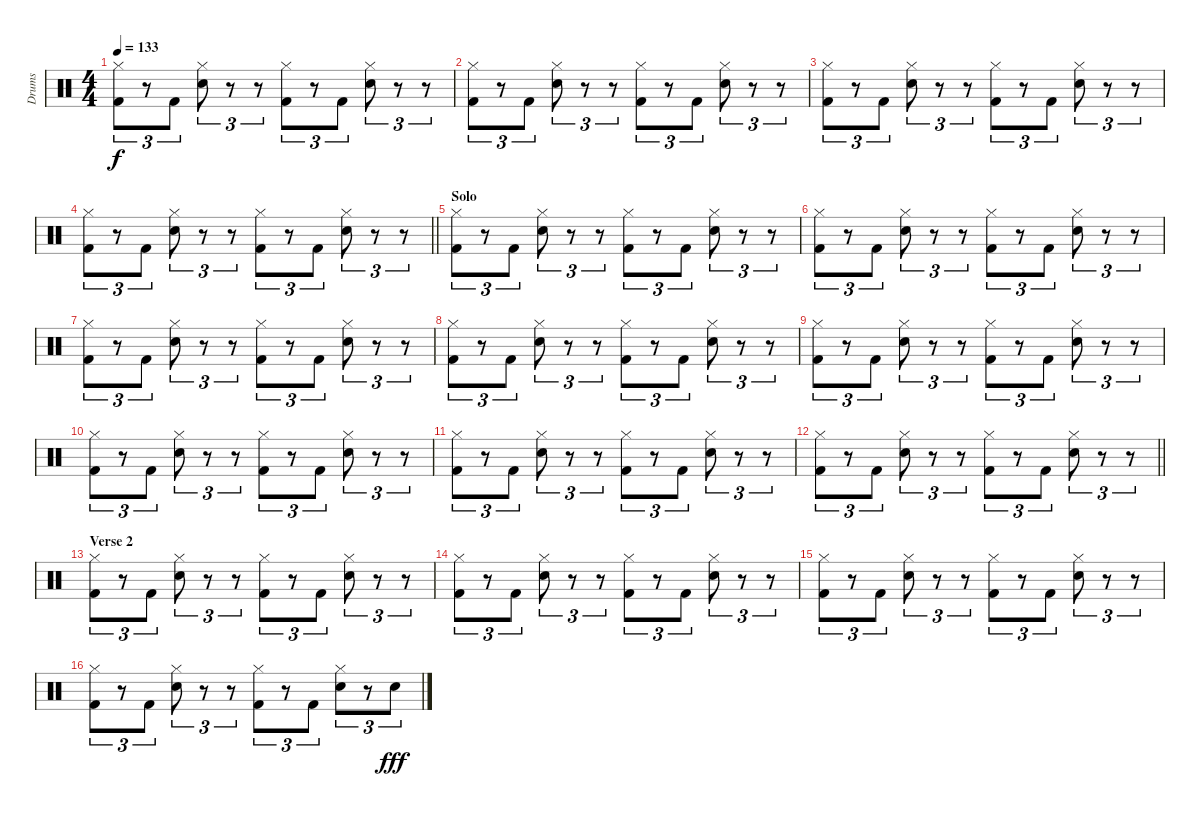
\track ("Drums" "Drums") {instrument percussion}
\staff {score}
\articulation defaults
\ts (4 4)
\tempo 133
\clef neutral
\ks c
("Hi-Hat (closed)" "Kick (hit) 2").8{tu (3 2) dy f} r.8{tu (3 2)} "Kick (hit) 2".8{tu (3 2)} ("Hi-Hat (closed)" "Snare (hit) 2").8{tu (3 2)} r.8{tu (3 2)} r.8{tu (3 2)} ("Hi-Hat (closed)" "Kick (hit) 2").8{tu (3 2)} r.8{tu (3 2)} "Kick (hit) 2".8{tu (3 2)} ("Hi-Hat (closed)" "Snare (hit) 2").8{tu (3 2)} r.8{tu (3 2)} r.8{tu (3 2)} |
("Hi-Hat (closed)" "Kick (hit) 2").8{tu (3 2)} r.8{tu (3 2)} "Kick (hit) 2".8{tu (3 2)} ("Hi-Hat (closed)" "Snare (hit) 2").8{tu (3 2)} r.8{tu (3 2)} r.8{tu (3 2)} ("Hi-Hat (closed)" "Kick (hit) 2").8{tu (3 2)} r.8{tu (3 2)} "Kick (hit) 2".8{tu (3 2)} ("Hi-Hat (closed)" "Snare (hit) 2").8{tu (3 2)} r.8{tu (3 2)} r.8{tu (3 2)} |
("Hi-Hat (closed)" "Kick (hit) 2").8{tu (3 2)} r.8{tu (3 2)} "Kick (hit) 2".8{tu (3 2)} ("Hi-Hat (closed)" "Snare (hit) 2").8{tu (3 2)} r.8{tu (3 2)} r.8{tu (3 2)} ("Hi-Hat (closed)" "Kick (hit) 2").8{tu (3 2)} r.8{tu (3 2)} "Kick (hit) 2".8{tu (3 2)} ("Hi-Hat (closed)" "Snare (hit) 2").8{tu (3 2)} r.8{tu (3 2)} r.8{tu (3 2)} |
\barLineRight lightlight
("Hi-Hat (closed)" "Kick (hit) 2").8{tu (3 2)} r.8{tu (3 2)} "Kick (hit) 2".8{tu (3 2)} ("Hi-Hat (closed)" "Snare (hit) 2").8{tu (3 2)} r.8{tu (3 2)} r.8{tu (3 2)} ("Hi-Hat (closed)" "Kick (hit) 2").8{tu (3 2)} r.8{tu (3 2)} "Kick (hit) 2".8{tu (3 2)} ("Hi-Hat (closed)" "Snare (hit) 2").8{tu (3 2)} r.8{tu (3 2)} r.8{tu (3 2)} |
\section ("" "Solo")
("Hi-Hat (closed)" "Kick (hit) 2").8{tu (3 2)} r.8{tu (3 2)} "Kick (hit) 2".8{tu (3 2)} ("Hi-Hat (closed)" "Snare (hit) 2").8{tu (3 2)} r.8{tu (3 2)} r.8{tu (3 2)} ("Hi-Hat (closed)" "Kick (hit) 2").8{tu (3 2)} r.8{tu (3 2)} "Kick (hit) 2".8{tu (3 2)} ("Hi-Hat (closed)" "Snare (hit) 2").8{tu (3 2)} r.8{tu (3 2)} r.8{tu (3 2)} |
("Hi-Hat (closed)" "Kick (hit) 2").8{tu (3 2)} r.8{tu (3 2)} "Kick (hit) 2".8{tu (3 2)} ("Hi-Hat (closed)" "Snare (hit) 2").8{tu (3 2)} r.8{tu (3 2)} r.8{tu (3 2)} ("Hi-Hat (closed)" "Kick (hit) 2").8{tu (3 2)} r.8{tu (3 2)} "Kick (hit) 2".8{tu (3 2)} ("Hi-Hat (closed)" "Snare (hit) 2").8{tu (3 2)} r.8{tu (3 2)} r.8{tu (3 2)} |
("Hi-Hat (closed)" "Kick (hit) 2").8{tu (3 2)} r.8{tu (3 2)} "Kick (hit) 2".8{tu (3 2)} ("Hi-Hat (closed)" "Snare (hit) 2").8{tu (3 2)} r.8{tu (3 2)} r.8{tu (3 2)} ("Hi-Hat (closed)" "Kick (hit) 2").8{tu (3 2)} r.8{tu (3 2)} "Kick (hit) 2".8{tu (3 2)} ("Hi-Hat (closed)" "Snare (hit) 2").8{tu (3 2)} r.8{tu (3 2)} r.8{tu (3 2)} |
("Hi-Hat (closed)" "Kick (hit) 2").8{tu (3 2)} r.8{tu (3 2)} "Kick (hit) 2".8{tu (3 2)} ("Hi-Hat (closed)" "Snare (hit) 2").8{tu (3 2)} r.8{tu (3 2)} r.8{tu (3 2)} ("Hi-Hat (closed)" "Kick (hit) 2").8{tu (3 2)} r.8{tu (3 2)} "Kick (hit) 2".8{tu (3 2)} ("Hi-Hat (closed)" "Snare (hit) 2").8{tu (3 2)} r.8{tu (3 2)} r.8{tu (3 2)} |
("Hi-Hat (closed)" "Kick (hit) 2").8{tu (3 2)} r.8{tu (3 2)} "Kick (hit) 2".8{tu (3 2)} ("Hi-Hat (closed)" "Snare (hit) 2").8{tu (3 2)} r.8{tu (3 2)} r.8{tu (3 2)} ("Hi-Hat (closed)" "Kick (hit) 2").8{tu (3 2)} r.8{tu (3 2)} "Kick (hit) 2".8{tu (3 2)} ("Hi-Hat (closed)" "Snare (hit) 2").8{tu (3 2)} r.8{tu (3 2)} r.8{tu (3 2)} |
("Hi-Hat (closed)" "Kick (hit) 2").8{tu (3 2)} r.8{tu (3 2)} "Kick (hit) 2".8{tu (3 2)} ("Hi-Hat (closed)" "Snare (hit) 2").8{tu (3 2)} r.8{tu (3 2)} r.8{tu (3 2)} ("Hi-Hat (closed)" "Kick (hit) 2").8{tu (3 2)} r.8{tu (3 2)} "Kick (hit) 2".8{tu (3 2)} ("Hi-Hat (closed)" "Snare (hit) 2").8{tu (3 2)} r.8{tu (3 2)} r.8{tu (3 2)} |
("Hi-Hat (closed)" "Kick (hit) 2").8{tu (3 2)} r.8{tu (3 2)} "Kick (hit) 2".8{tu (3 2)} ("Hi-Hat (closed)" "Snare (hit) 2").8{tu (3 2)} r.8{tu (3 2)} r.8{tu (3 2)} ("Hi-Hat (closed)" "Kick (hit) 2").8{tu (3 2)} r.8{tu (3 2)} "Kick (hit) 2".8{tu (3 2)} ("Hi-Hat (closed)" "Snare (hit) 2").8{tu (3 2)} r.8{tu (3 2)} r.8{tu (3 2)} |
\barLineRight lightlight
("Hi-Hat (closed)" "Kick (hit) 2").8{tu (3 2)} r.8{tu (3 2)} "Kick (hit) 2".8{tu (3 2)} ("Hi-Hat (closed)" "Snare (hit) 2").8{tu (3 2)} r.8{tu (3 2)} r.8{tu (3 2)} ("Hi-Hat (closed)" "Kick (hit) 2").8{tu (3 2)} r.8{tu (3 2)} "Kick (hit) 2".8{tu (3 2)} ("Hi-Hat (closed)" "Snare (hit) 2").8{tu (3 2)} r.8{tu (3 2)} r.8{tu (3 2)} |
\section ("" "Verse 2")
("Hi-Hat (closed)" "Kick (hit) 2").8{tu (3 2)} r.8{tu (3 2)} "Kick (hit) 2".8{tu (3 2)} ("Hi-Hat (closed)" "Snare (hit) 2").8{tu (3 2)} r.8{tu (3 2)} r.8{tu (3 2)} ("Hi-Hat (closed)" "Kick (hit) 2").8{tu (3 2)} r.8{tu (3 2)} "Kick (hit) 2".8{tu (3 2)} ("Hi-Hat (closed)" "Snare (hit) 2").8{tu (3 2)} r.8{tu (3 2)} r.8{tu (3 2)} |
("Hi-Hat (closed)" "Kick (hit) 2").8{tu (3 2)} r.8{tu (3 2)} "Kick (hit) 2".8{tu (3 2)} ("Hi-Hat (closed)" "Snare (hit) 2").8{tu (3 2)} r.8{tu (3 2)} r.8{tu (3 2)} ("Hi-Hat (closed)" "Kick (hit) 2").8{tu (3 2)} r.8{tu (3 2)} "Kick (hit) 2".8{tu (3 2)} ("Hi-Hat (closed)" "Snare (hit) 2").8{tu (3 2)} r.8{tu (3 2)} r.8{tu (3 2)} |
("Hi-Hat (closed)" "Kick (hit) 2").8{tu (3 2)} r.8{tu (3 2)} "Kick (hit) 2".8{tu (3 2)} ("Hi-Hat (closed)" "Snare (hit) 2").8{tu (3 2)} r.8{tu (3 2)} r.8{tu (3 2)} ("Hi-Hat (closed)" "Kick (hit) 2").8{tu (3 2)} r.8{tu (3 2)} "Kick (hit) 2".8{tu (3 2)} ("Hi-Hat (closed)" "Snare (hit) 2").8{tu (3 2)} r.8{tu (3 2)} r.8{tu (3 2)} |
("Hi-Hat (closed)" "Kick (hit) 2").8{tu (3 2)} r.8{tu (3 2)} "Kick (hit) 2".8{tu (3 2)} ("Hi-Hat (closed)" "Snare (hit) 2").8{tu (3 2)} r.8{tu (3 2)} r.8{tu (3 2)} ("Hi-Hat (closed)" "Kick (hit) 2").8{tu (3 2)} r.8{tu (3 2)} "Kick (hit) 2".8{tu (3 2)} ("Hi-Hat (closed)" "Snare (hit) 2").8{tu (3 2)} r.8{tu (3 2)} "Hand Clap (hit)".8{tu (3 2) dy fff}
